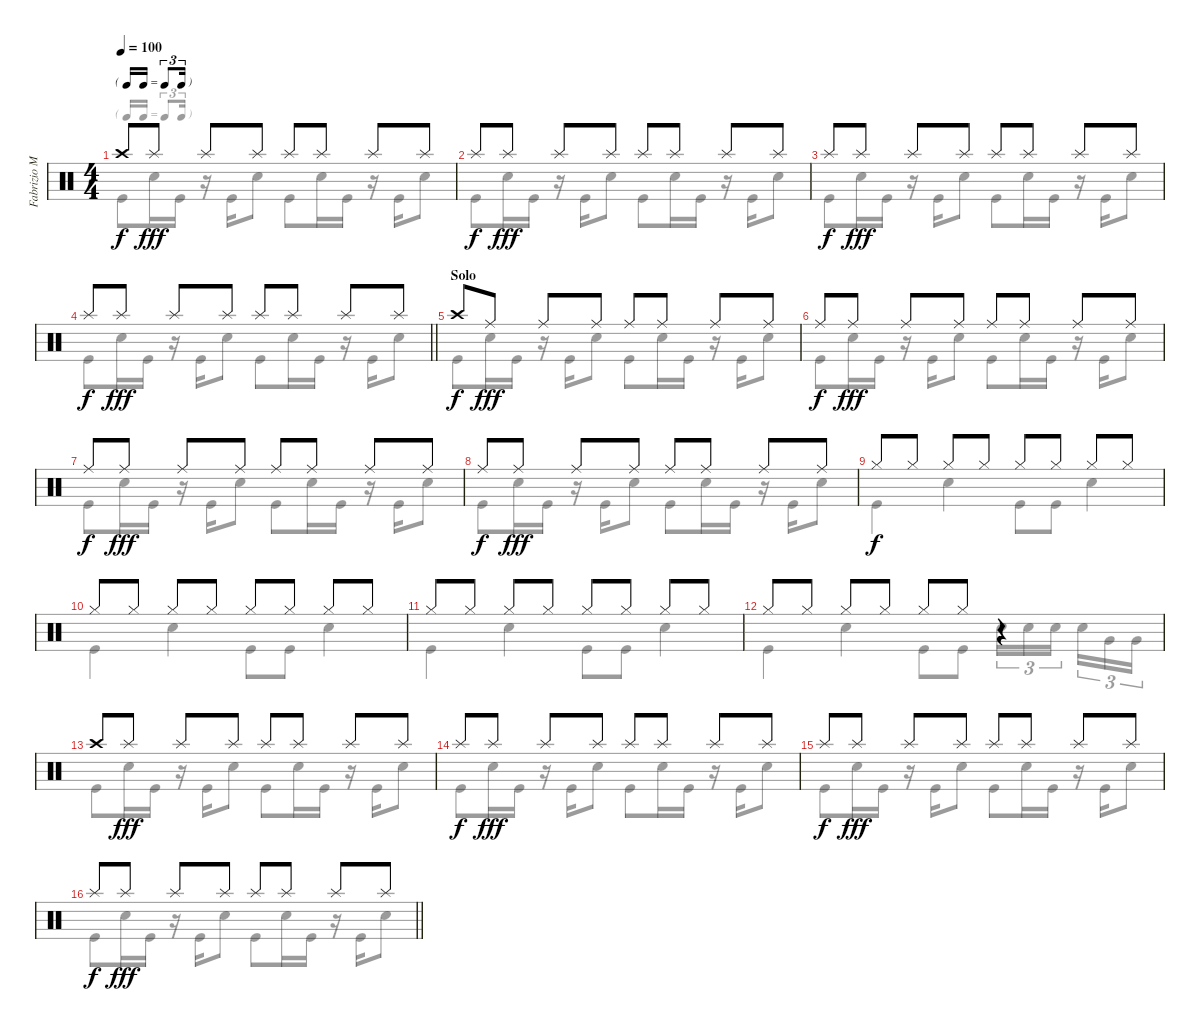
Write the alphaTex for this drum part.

\track ("Fabrizio Moretti (Drum)" "Fabrizio M") {instrument percussion}
\staff {score}
\articulation defaults
\voice
\ts (4 4)
\tf triplet16th
\tempo 100
\clef neutral
\ks c "Crash high (hit)".8{dy f} "Splash (hit)".8{dy fff} "Splash (hit)".8 "Splash (hit)".8 "Splash (hit)".8 "Splash (hit)".8 "Splash (hit)".8 "Splash (hit)".8
|
"Splash (hit)".8{dy f} "Splash (hit)".8{dy fff} "Splash (hit)".8 "Splash (hit)".8 "Splash (hit)".8 "Splash (hit)".8 "Splash (hit)".8 "Splash (hit)".8 |
"Splash (hit)".8{dy f} "Splash (hit)".8{dy fff} "Splash (hit)".8 "Splash (hit)".8 "Splash (hit)".8 "Splash (hit)".8 "Splash (hit)".8 "Splash (hit)".8 |
\barLineRight lightlight "Splash (hit)".8{dy f} "Splash (hit)".8{dy fff} "Splash (hit)".8 "Splash (hit)".8 "Splash (hit)".8 "Splash (hit)".8 "Splash (hit)".8 "Splash (hit)".8
|
\section ("" "Solo")
"Crash high (hit)".8{dy f} "Ride (middle)".8{dy fff} "Ride (middle)".8 "Ride (middle)".8 "Ride (middle)".8 "Ride (middle)".8 "Ride (middle)".8 "Ride (middle)".8 |
"Ride (middle)".8{dy f} "Ride (middle)".8{dy fff} "Ride (middle)".8 "Ride (middle)".8 "Ride (middle)".8 "Ride (middle)".8 "Ride (middle)".8 "Ride (middle)".8 |
"Ride (middle)".8{dy f} "Ride (middle)".8{dy fff} "Ride (middle)".8 "Ride (middle)".8 "Ride (middle)".8 "Ride (middle)".8 "Ride (middle)".8 "Ride (middle)".8 |
"Ride (middle)".8{dy f} "Ride (middle)".8{dy fff} "Ride (middle)".8 "Ride (middle)".8 "Ride (middle)".8 "Ride (middle)".8 "Ride (middle)".8 "Ride (middle)".8 |
"Hi-Hat (closed)".8{dy f} "Hi-Hat (closed)".8 "Hi-Hat (closed)".8 "Hi-Hat (closed)".8 "Hi-Hat (closed)".8 "Hi-Hat (closed)".8 "Hi-Hat (closed)".8 "Hi-Hat (closed)".8 |
"Hi-Hat (closed)".8 "Hi-Hat (closed)".8 "Hi-Hat (closed)".8 "Hi-Hat (closed)".8 "Hi-Hat (closed)".8 "Hi-Hat (closed)".8 "Hi-Hat (closed)".8 "Hi-Hat (closed)".8 |
"Hi-Hat (closed)".8 "Hi-Hat (closed)".8 "Hi-Hat (closed)".8 "Hi-Hat (closed)".8 "Hi-Hat (closed)".8 "Hi-Hat (closed)".8 "Hi-Hat (closed)".8 "Hi-Hat (closed)".8 |
"Hi-Hat (closed)".8 "Hi-Hat (closed)".8 "Hi-Hat (closed)".8 "Hi-Hat (closed)".8 "Hi-Hat (closed)".8 "Hi-Hat (closed)".8 r.4 |
"Crash high (hit)".8 "Splash (hit)".8{dy fff} "Splash (hit)".8 "Splash (hit)".8 "Splash (hit)".8 "Splash (hit)".8 "Splash (hit)".8 "Splash (hit)".8 |
"Splash (hit)".8{dy f} "Splash (hit)".8{dy fff} "Splash (hit)".8 "Splash (hit)".8 "Splash (hit)".8 "Splash (hit)".8 "Splash (hit)".8 "Splash (hit)".8 |
"Splash (hit)".8{dy f} "Splash (hit)".8{dy fff} "Splash (hit)".8 "Splash (hit)".8 "Splash (hit)".8 "Splash (hit)".8 "Splash (hit)".8 "Splash (hit)".8 |
\barLineRight lightlight "Splash (hit)".8{dy f} "Splash (hit)".8{dy fff} "Splash (hit)".8 "Splash (hit)".8 "Splash (hit)".8 "Splash (hit)".8 "Splash (hit)".8 "Splash (hit)".8
\voice
\clef neutral
\ottava regular
\simile none
\ks c "Kick (hit)".8{dy f} "Snare (hit) 2".16 "Kick (hit)".16
r.16 "Kick (hit)".16 "Snare (hit) 2".8 "Kick (hit)".8 "Snare (hit) 2".16 "Kick (hit)".16 r.16 "Kick (hit)".16 "Snare (hit) 2".8 |
"Kick (hit)".8 "Snare (hit) 2".16 "Kick (hit)".16 r.16 "Kick (hit)".16 "Snare (hit) 2".8 "Kick (hit)".8 "Snare (hit) 2".16 "Kick (hit)".16 r.16 "Kick (hit)".16 "Snare (hit) 2".8 |
"Kick (hit)".8 "Snare (hit) 2".16 "Kick (hit)".16 r.16 "Kick (hit)".16 "Snare (hit) 2".8 "Kick (hit)".8 "Snare (hit) 2".16 "Kick (hit)".16 r.16 "Kick (hit)".16 "Snare (hit) 2".8 |
\barLineRight lightlight "Kick (hit)".8 "Snare (hit) 2".16 "Kick (hit)".16
r.16 "Kick (hit)".16 "Snare (hit) 2".8 "Kick (hit)".8 "Snare (hit) 2".16 "Kick (hit)".16 r.16 "Kick (hit)".16 "Snare (hit) 2".8 |
"Kick (hit)".8 "Snare (hit) 2".16 "Kick (hit)".16 r.16 "Kick (hit)".16 "Snare (hit) 2".8 "Kick (hit)".8 "Snare (hit) 2".16 "Kick (hit)".16 r.16 "Kick (hit)".16 "Snare (hit) 2".8 |
"Kick (hit)".8 "Snare (hit) 2".16 "Kick (hit)".16 r.16 "Kick (hit)".16 "Snare (hit) 2".8 "Kick (hit)".8 "Snare (hit) 2".16 "Kick (hit)".16 r.16 "Kick (hit)".16 "Snare (hit) 2".8 |
"Kick (hit)".8 "Snare (hit) 2".16 "Kick (hit)".16 r.16 "Kick (hit)".16 "Snare (hit) 2".8 "Kick (hit)".8 "Snare (hit) 2".16 "Kick (hit)".16 r.16 "Kick (hit)".16 "Snare (hit) 2".8 |
"Kick (hit)".8 "Snare (hit) 2".16 "Kick (hit)".16 r.16 "Kick (hit)".16 "Snare (hit) 2".8 "Kick (hit)".8 "Snare (hit) 2".16 "Kick (hit)".16 r.16 "Kick (hit)".16 "Snare (hit) 2".8 |
"Kick (hit)".4 "Snare (hit) 2".4 "Kick (hit)".8 "Kick (hit)".8 "Snare (hit) 2".4 |
"Kick (hit)".4 "Snare (hit) 2".4 "Kick (hit)".8 "Kick (hit)".8 "Snare (hit) 2".4 |
"Kick (hit)".4 "Snare (hit) 2".4 "Kick (hit)".8 "Kick (hit)".8 "Snare (hit) 2".4 |
"Kick (hit)".4 "Snare (hit) 2".4 "Kick (hit)".8 "Kick (hit)".8 "Snare (hit) 2".16{tu (3 2)} "Snare (hit) 2".16{tu (3 2)} "Snare (hit) 2".16{tu (3 2) beam splitsecondary} "Snare (hit) 2".16{tu (3 2)} "Very Low Tom (hit)".16{tu (3 2)} "Very Low Tom (hit)".16{tu (3 2)} |
"Kick (hit)".8 "Snare (hit) 2".16 "Kick (hit)".16 r.16 "Kick (hit)".16 "Snare (hit) 2".8 "Kick (hit)".8 "Snare (hit) 2".16 "Kick (hit)".16 r.16 "Kick (hit)".16 "Snare (hit) 2".8 |
"Kick (hit)".8 "Snare (hit) 2".16 "Kick (hit)".16 r.16 "Kick (hit)".16 "Snare (hit) 2".8 "Kick (hit)".8 "Snare (hit) 2".16 "Kick (hit)".16 r.16 "Kick (hit)".16 "Snare (hit) 2".8 |
"Kick (hit)".8 "Snare (hit) 2".16 "Kick (hit)".16 r.16 "Kick (hit)".16 "Snare (hit) 2".8 "Kick (hit)".8 "Snare (hit) 2".16 "Kick (hit)".16 r.16 "Kick (hit)".16 "Snare (hit) 2".8 |
\barLineRight lightlight "Kick (hit)".8 "Snare (hit) 2".16 "Kick (hit)".16
r.16 "Kick (hit)".16 "Snare (hit) 2".8 "Kick (hit)".8 "Snare (hit) 2".16 "Kick (hit)".16 r.16 "Kick (hit)".16 "Snare (hit) 2".8
